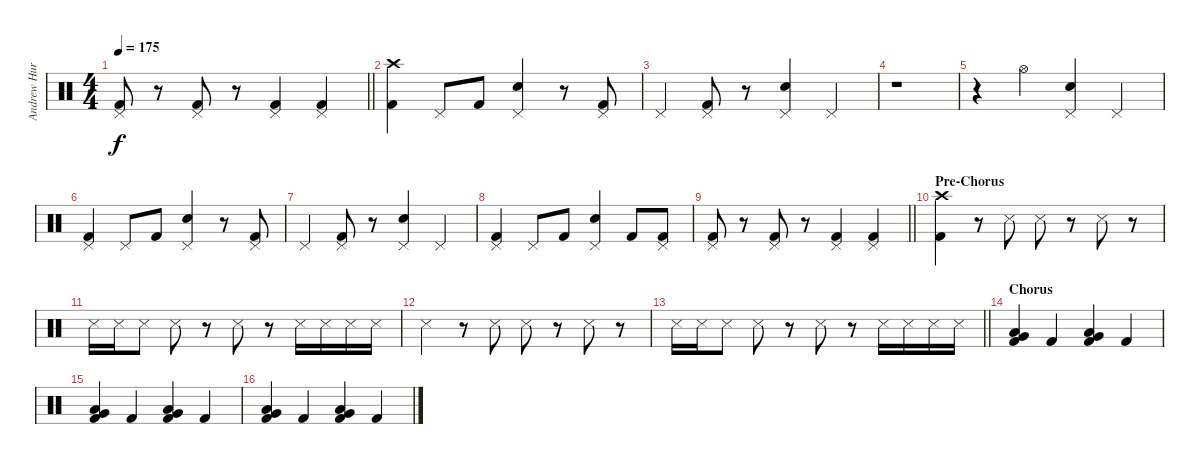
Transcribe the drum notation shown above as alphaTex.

\track ("Andrew Hurley (Drums)" "Andrew Hur") {instrument percussion}
\staff {score}
\articulation defaults
\ts (4 4)
\tempo 175
\clef neutral
\barLineRight lightlight
\ks c
("Pedal Hi-Hat (hit)" "Kick (hit) 2").8{dy f} r.8 ("Pedal Hi-Hat (hit)" "Kick (hit) 2").8 r.8 ("Pedal Hi-Hat (hit)" "Kick (hit) 2").4 ("Pedal Hi-Hat (hit)" "Kick (hit) 2").4 |
("Crash high (hit)" "Kick (hit) 2").4 "Pedal Hi-Hat (hit)".8 "Kick (hit) 2".8 ("Pedal Hi-Hat (hit)" "Snare (hit) 2").4 r.8 ("Pedal Hi-Hat (hit)" "Kick (hit) 2").8 |
"Pedal Hi-Hat (hit)".4 ("Pedal Hi-Hat (hit)" "Kick (hit) 2").8 r.8 ("Pedal Hi-Hat (hit)" "Snare (hit) 2").4 "Pedal Hi-Hat (hit)".4 |
r.1 |
r.4 "Hi-Hat (open)".4 ("Pedal Hi-Hat (hit)" "Snare (hit) 2").4 "Pedal Hi-Hat (hit)".4 |
("Pedal Hi-Hat (hit)" "Kick (hit) 2").4 "Pedal Hi-Hat (hit)".8 "Kick (hit) 2".8 ("Pedal Hi-Hat (hit)" "Snare (hit) 2").4 r.8 ("Pedal Hi-Hat (hit)" "Kick (hit) 2").8 |
"Pedal Hi-Hat (hit)".4 ("Pedal Hi-Hat (hit)" "Kick (hit) 2").8 r.8 ("Pedal Hi-Hat (hit)" "Snare (hit) 2").4 "Pedal Hi-Hat (hit)".4 |
("Pedal Hi-Hat (hit)" "Kick (hit) 2").4 "Pedal Hi-Hat (hit)".8 "Kick (hit) 2".8 ("Pedal Hi-Hat (hit)" "Snare (hit) 2").4 "Kick (hit) 2".8 ("Pedal Hi-Hat (hit)" "Kick (hit) 2").8 |
\barLineRight lightlight
("Pedal Hi-Hat (hit)" "Kick (hit) 2").8 r.8 ("Pedal Hi-Hat (hit)" "Kick (hit) 2").8 r.8 ("Pedal Hi-Hat (hit)" "Kick (hit) 2").4 ("Pedal Hi-Hat (hit)" "Kick (hit) 2").4 |
\section ("" "Pre-Chorus")
("Crash high (hit)" "Kick (hit) 2").4 r.8 "Snare (side stick) 3".8 "Snare (side stick) 3".8 r.8 "Snare (side stick) 3".8 r.8 |
"Snare (side stick) 3".16 "Snare (side stick) 3".16 "Snare (side stick) 3".8 "Snare (side stick) 3".8 r.8 "Snare (side stick) 3".8 r.8 "Snare (side stick) 3".16 "Snare (side stick) 3".16 "Snare (side stick) 3".16 "Snare (side stick) 3".16 |
"Snare (side stick) 3".4 r.8 "Snare (side stick) 3".8 "Snare (side stick) 3".8 r.8 "Snare (side stick) 3".8 r.8 |
\barLineRight lightlight "Snare (side stick) 3".16 "Snare (side stick) 3".16 "Snare (side stick) 3".8 "Snare (side stick) 3".8
r.8 "Snare (side stick) 3".8 r.8 "Snare (side stick) 3".16 "Snare (side stick) 3".16 "Snare (side stick) 3".16 "Snare (side stick) 3".16 |
\section ("" "Chorus")
("Very Low Tom (hit)" "Low Floor Tom (hit)" "Kick (hit) 2").4 "Kick (hit) 2".4 ("Very Low Tom (hit)" "Low Floor Tom (hit)" "Kick (hit) 2").4 "Kick (hit) 2".4 |
("Very Low Tom (hit)" "Low Floor Tom (hit)" "Kick (hit) 2").4 "Kick (hit) 2".4 ("Very Low Tom (hit)" "Low Floor Tom (hit)" "Kick (hit) 2").4 "Kick (hit) 2".4 |
("Very Low Tom (hit)" "Low Floor Tom (hit)" "Kick (hit) 2").4 "Kick (hit) 2".4 ("Very Low Tom (hit)" "Low Floor Tom (hit)" "Kick (hit) 2").4 "Kick (hit) 2".4
